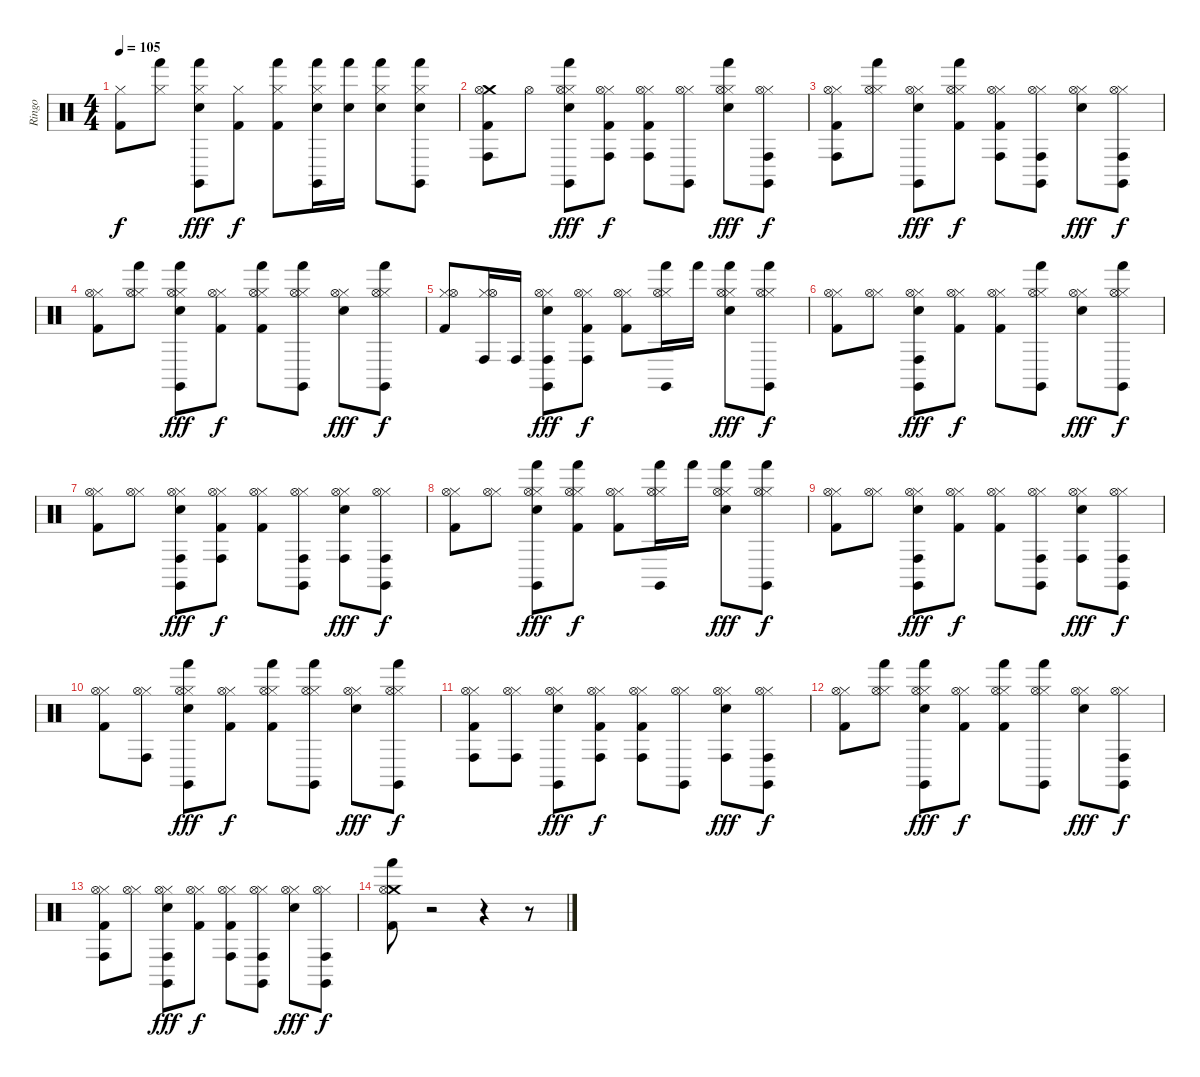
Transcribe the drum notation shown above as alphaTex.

\track ("Ringo" "Ringo") {instrument percussion}
\staff {score}
\articulation defaults
\ts (4 4)
\tempo 105
\clef neutral
\ks c
("Hi-Hat (closed)" "Kick (hit) 2").8{dy f} ("Hi-Hat (closed)" "Hand (hit)").8 ("Hi-Hat (closed)" "Claves (hit)" "Hand (hit)" "Snare (hit) 2").8{dy fff} ("Kick (hit) 2" "Hi-Hat (closed)").8{dy f} ("Hi-Hat (closed)" "Hand (hit)" "Kick (hit) 2").8 ("Hand (hit)" "Claves (hit)" "Snare (hit) 2" "Hi-Hat (closed)").16 ("Snare (hit) 2" "Hand (hit)").16 ("Hi-Hat (closed)" "Snare (hit) 2" "Hand (hit)").8 ("Hand (hit)" "Hi-Hat (closed)" "Claves (hit)" "Snare (hit) 2").8 |
("Kick (hit) 2" "Crash medium (hit)" "Conga high (hit)" "Hi-Hat (open)").8 "Hi-Hat (open)".8 ("Hand (hit)" "Snare (hit) 2" "Claves (hit)" "Hi-Hat (closed)" "Hi-Hat (open)").8{dy fff} ("Hi-Hat (closed)" "Kick (hit) 2" "Conga high (hit)" "Hi-Hat (open)").8{dy f} ("Conga high (hit)" "Hi-Hat (closed)" "Kick (hit) 2" "Hi-Hat (open)").8 ("Claves (hit)" "Hi-Hat (closed)" "Hi-Hat (open)").8 ("Snare (hit) 2" "Hand (hit)" "Hi-Hat (closed)" "Hi-Hat (open)").8{dy fff} ("Claves (hit)" "Conga high (hit)" "Hi-Hat (closed)" "Hi-Hat (open)").8{dy f} |
("Conga high (hit)" "Kick (hit) 2" "Hi-Hat (closed)" "Hi-Hat (open)").8 ("Hi-Hat (closed)" "Hand (hit)" "Hi-Hat (open)").8 ("Claves (hit)" "Snare (hit) 2" "Hi-Hat (closed)" "Hi-Hat (open)").8{dy fff} ("Hi-Hat (closed)" "Kick (hit) 2" "Hand (hit)" "Hi-Hat (open)").8{dy f} ("Conga high (hit)" "Kick (hit) 2" "Hi-Hat (closed)" "Hi-Hat (open)").8 ("Claves (hit)" "Conga high (hit)" "Hi-Hat (closed)" "Hi-Hat (open)").8 ("Hi-Hat (closed)" "Snare (hit) 2" "Hi-Hat (open)").8{dy fff} ("Conga high (hit)" "Hi-Hat (closed)" "Claves (hit)" "Hi-Hat (open)").8{dy f} |
("Kick (hit) 2" "Hi-Hat (closed)" "Hi-Hat (open)").8 ("Hi-Hat (closed)" "Hand (hit)" "Hi-Hat (open)").8 ("Hand (hit)" "Hi-Hat (closed)" "Claves (hit)" "Snare (hit) 2" "Hi-Hat (open)").8{dy fff} ("Kick (hit) 2" "Hi-Hat (closed)" "Hi-Hat (open)").8{dy f} ("Kick (hit) 2" "Hand (hit)" "Hi-Hat (closed)" "Hi-Hat (open)").8 ("Hi-Hat (closed)" "Claves (hit)" "Hand (hit)" "Hi-Hat (open)").8 ("Hi-Hat (closed)" "Snare (hit) 2" "Hi-Hat (open)").8{dy fff} ("Hand (hit)" "Hi-Hat (closed)" "Claves (hit)" "Hi-Hat (open)").8{dy f} |
("Kick (hit) 2" "Hi-Hat (closed)" "Hi-Hat (open)").8 ("Conga high (hit)" "Hi-Hat (closed)" "Hi-Hat (open)").16 "Conga high (hit)".16 ("Claves (hit)" "Snare (hit) 2" "Hi-Hat (closed)" "Conga high (hit)" "Hi-Hat (open)").8{dy fff} ("Hi-Hat (closed)" "Conga high (hit)" "Kick (hit) 2" "Hi-Hat (open)").8{dy f} ("Kick (hit) 2" "Hi-Hat (closed)" "Hi-Hat (open)").8 ("Claves (hit)" "Hand (hit)" "Hi-Hat (closed)" "Hi-Hat (open)").16 "Hand (hit)".16 ("Hi-Hat (closed)" "Snare (hit) 2" "Hand (hit)" "Hi-Hat (open)").8{dy fff} ("Hi-Hat (closed)" "Claves (hit)" "Hand (hit)" "Hi-Hat (open)").8{dy f} |
("Hi-Hat (closed)" "Kick (hit) 2" "Hi-Hat (open)").8 ("Hi-Hat (closed)" "Hi-Hat (open)").8 ("Snare (hit) 2" "Conga high (hit)" "Hi-Hat (closed)" "Claves (hit)" "Hi-Hat (open)").8{dy fff} ("Kick (hit) 2" "Hi-Hat (closed)" "Hi-Hat (open)").8{dy f} ("Hi-Hat (closed)" "Kick (hit) 2" "Hi-Hat (open)").8 ("Claves (hit)" "Hi-Hat (closed)" "Hand (hit)" "Hi-Hat (open)").8 ("Hi-Hat (closed)" "Snare (hit) 2" "Hi-Hat (open)").8{dy fff} ("Hand (hit)" "Hi-Hat (closed)" "Claves (hit)" "Hi-Hat (open)").8{dy f} |
("Hi-Hat (closed)" "Kick (hit) 2" "Hi-Hat (open)").8 ("Hi-Hat (closed)" "Hi-Hat (open)").8 ("Conga high (hit)" "Claves (hit)" "Hi-Hat (closed)" "Snare (hit) 2" "Hi-Hat (open)").8{dy fff} ("Kick (hit) 2" "Conga high (hit)" "Hi-Hat (closed)" "Hi-Hat (open)").8{dy f} ("Kick (hit) 2" "Hi-Hat (closed)" "Hi-Hat (open)").8 ("Hi-Hat (closed)" "Conga high (hit)" "Claves (hit)" "Hi-Hat (open)").8 ("Snare (hit) 2" "Conga high (hit)" "Hi-Hat (closed)" "Hi-Hat (open)").8{dy fff} ("Claves (hit)" "Conga high (hit)" "Hi-Hat (closed)" "Hi-Hat (open)").8{dy f} |
("Kick (hit) 2" "Hi-Hat (closed)" "Hi-Hat (open)").8 ("Hi-Hat (closed)" "Hi-Hat (open)").8 ("Hand (hit)" "Claves (hit)" "Snare (hit) 2" "Hi-Hat (closed)" "Hi-Hat (open)").8{dy fff} ("Hi-Hat (closed)" "Kick (hit) 2" "Hand (hit)" "Hi-Hat (open)").8{dy f} ("Kick (hit) 2" "Hi-Hat (closed)" "Hi-Hat (open)").8 ("Claves (hit)" "Hi-Hat (closed)" "Hand (hit)" "Hi-Hat (open)").16 "Hand (hit)".16 ("Hand (hit)" "Hi-Hat (closed)" "Snare (hit) 2" "Hi-Hat (open)").8{dy fff} ("Hand (hit)" "Hi-Hat (closed)" "Claves (hit)" "Hi-Hat (open)").8{dy f} |
("Kick (hit) 2" "Hi-Hat (closed)" "Hi-Hat (open)").8 ("Hi-Hat (closed)" "Hi-Hat (open)").8 ("Conga high (hit)" "Snare (hit) 2" "Hi-Hat (closed)" "Claves (hit)" "Hi-Hat (open)").8{dy fff} ("Kick (hit) 2" "Hi-Hat (closed)" "Hi-Hat (open)").8{dy f} ("Kick (hit) 2" "Hi-Hat (closed)" "Hi-Hat (open)").8 ("Claves (hit)" "Hi-Hat (closed)" "Conga high (hit)" "Hi-Hat (open)").8 ("Conga high (hit)" "Hi-Hat (closed)" "Snare (hit) 2" "Hi-Hat (open)").8{dy fff} ("Claves (hit)" "Conga high (hit)" "Hi-Hat (closed)" "Hi-Hat (open)").8{dy f} |
("Kick (hit) 2" "Hi-Hat (closed)" "Hi-Hat (open)").8 ("Hi-Hat (closed)" "Conga high (hit)" "Hi-Hat (open)").8 ("Hand (hit)" "Hi-Hat (closed)" "Claves (hit)" "Snare (hit) 2" "Hi-Hat (open)").8{dy fff} ("Hi-Hat (closed)" "Kick (hit) 2" "Hi-Hat (open)").8{dy f} ("Hi-Hat (closed)" "Kick (hit) 2" "Hand (hit)" "Hi-Hat (open)").8 ("Hi-Hat (closed)" "Hand (hit)" "Claves (hit)" "Hi-Hat (open)").8 ("Hi-Hat (closed)" "Snare (hit) 2" "Hi-Hat (open)").8{dy fff} ("Claves (hit)" "Hi-Hat (closed)" "Hand (hit)" "Hi-Hat (open)").8{dy f} |
("Conga high (hit)" "Kick (hit) 2" "Hi-Hat (closed)" "Hi-Hat (open)").8 ("Conga high (hit)" "Hi-Hat (closed)" "Hi-Hat (open)").8 ("Claves (hit)" "Snare (hit) 2" "Hi-Hat (closed)" "Hi-Hat (open)").8{dy fff} ("Hi-Hat (closed)" "Kick (hit) 2" "Conga high (hit)" "Hi-Hat (open)").8{dy f} ("Kick (hit) 2" "Conga high (hit)" "Hi-Hat (closed)" "Hi-Hat (open)").8 ("Claves (hit)" "Hi-Hat (closed)" "Hi-Hat (open)").8 ("Snare (hit) 2" "Hi-Hat (closed)" "Conga high (hit)" "Hi-Hat (open)").8{dy fff} ("Conga high (hit)" "Hi-Hat (closed)" "Claves (hit)" "Hi-Hat (open)").8{dy f} |
("Hi-Hat (closed)" "Kick (hit) 2" "Hi-Hat (open)").8 ("Hi-Hat (closed)" "Hand (hit)" "Hi-Hat (open)").8 ("Hand (hit)" "Claves (hit)" "Snare (hit) 2" "Hi-Hat (closed)" "Hi-Hat (open)").8{dy fff} ("Hi-Hat (closed)" "Kick (hit) 2" "Hi-Hat (open)").8{dy f} ("Hi-Hat (closed)" "Hand (hit)" "Kick (hit) 2" "Hi-Hat (open)").8 ("Claves (hit)" "Hi-Hat (closed)" "Hand (hit)" "Hi-Hat (open)").8 ("Hi-Hat (closed)" "Snare (hit) 2" "Hi-Hat (open)").8{dy fff} ("Conga high (hit)" "Claves (hit)" "Hi-Hat (closed)" "Hi-Hat (open)").8{dy f} |
("Hi-Hat (closed)" "Conga high (hit)" "Kick (hit) 2" "Hi-Hat (open)").8 ("Hi-Hat (closed)" "Hi-Hat (open)").8 ("Conga high (hit)" "Snare (hit) 2" "Hi-Hat (closed)" "Claves (hit)" "Hi-Hat (open)").8{dy fff} ("Kick (hit) 2" "Hi-Hat (closed)" "Hi-Hat (open)").8{dy f} ("Kick (hit) 2" "Conga high (hit)" "Hi-Hat (closed)" "Hi-Hat (open)").8 ("Claves (hit)" "Hi-Hat (closed)" "Conga high (hit)" "Hi-Hat (open)").8 ("Snare (hit) 2" "Hi-Hat (closed)" "Hi-Hat (open)").8{dy fff} ("Hi-Hat (closed)" "Conga high (hit)" "Claves (hit)" "Hi-Hat (open)").8{dy f} |
("Crash medium (hit)" "Kick (hit) 2" "Hand (hit)" "Hi-Hat (open)").8 r.2 r.4 r.8
